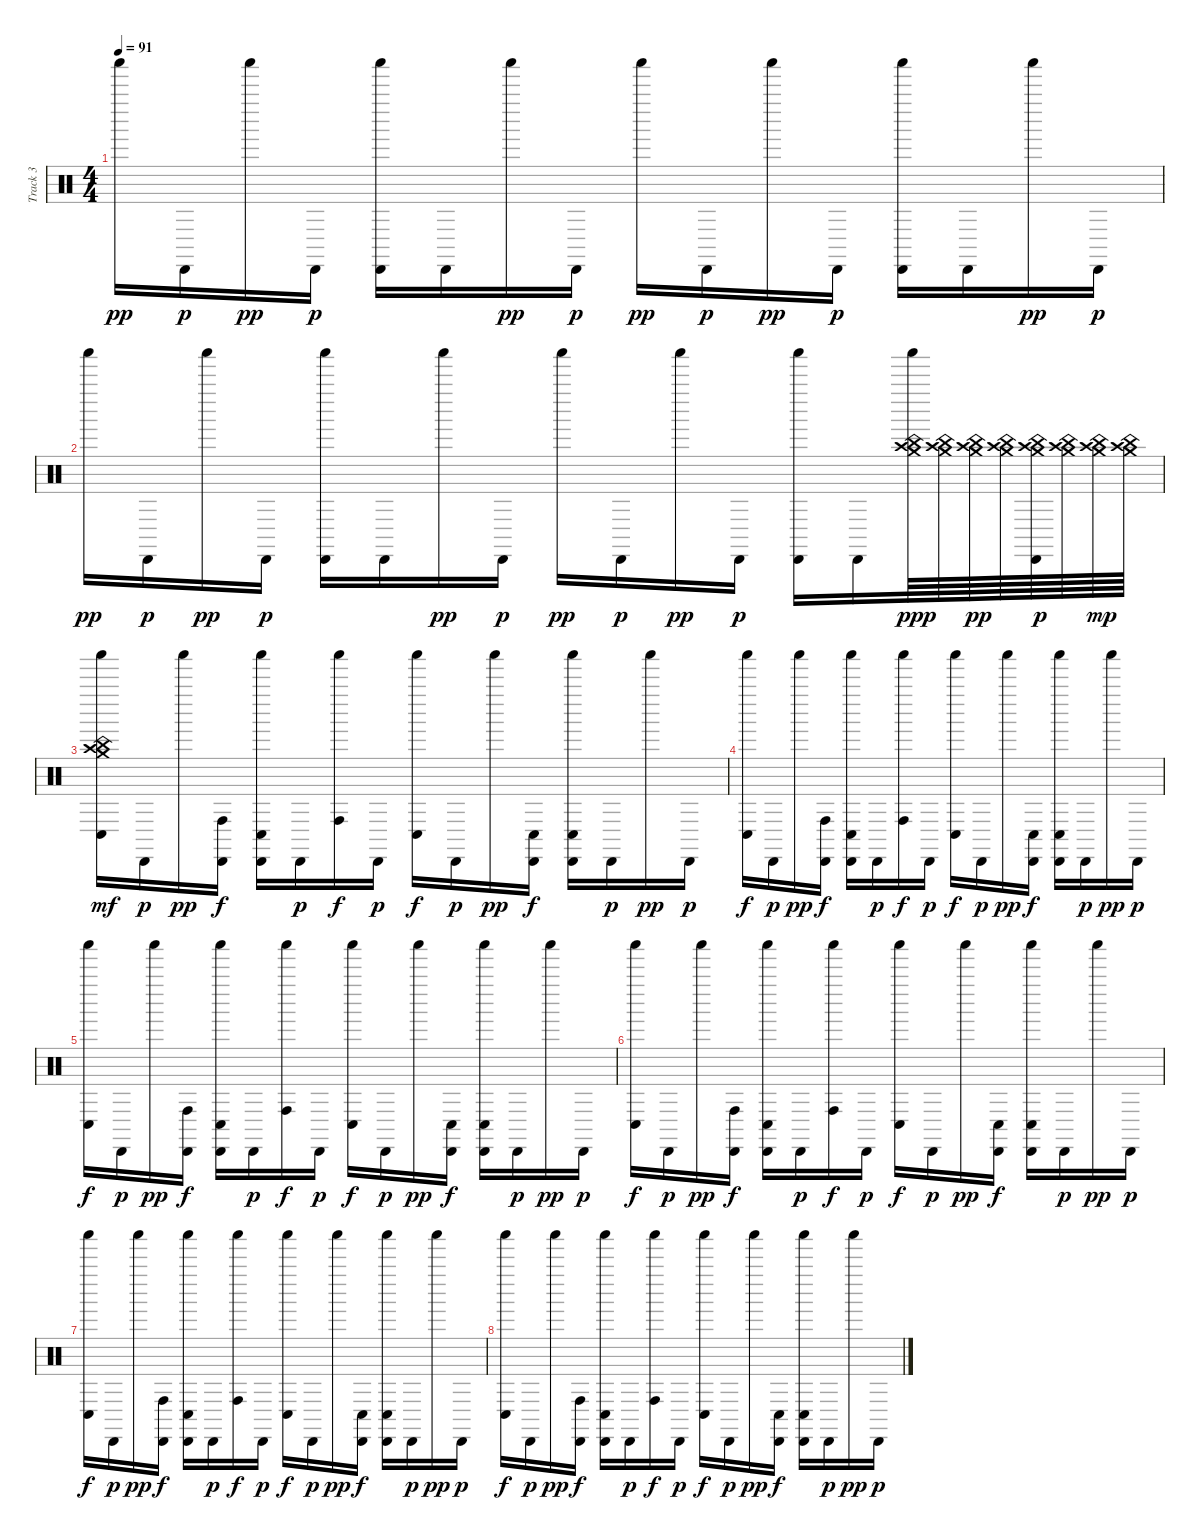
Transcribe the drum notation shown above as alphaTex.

\track ("Track 3" "Track 3") {instrument percussion}
\staff {score}
\articulation defaults
\ts (4 4)
\tempo 91
\clef neutral
\ks c "Shaker (hit)".16{dy pp} "Cabasa (hit)".16{dy p} "Shaker (hit)".16{dy pp} "Cabasa (hit)".16{dy p}
("Cabasa (hit)" "Shaker (hit)").16 "Cabasa (hit)".16 "Shaker (hit)".16{dy pp} "Cabasa (hit)".16{dy p} "Shaker (hit)".16{dy pp} "Cabasa (hit)".16{dy p} "Shaker (hit)".16{dy pp} "Cabasa (hit)".16{dy p} ("Cabasa (hit)" "Shaker (hit)").16 "Cabasa (hit)".16 "Shaker (hit)".16{dy pp} "Cabasa (hit)".16{dy p} |
"Shaker (hit)".16{dy pp} "Cabasa (hit)".16{dy p} "Shaker (hit)".16{dy pp} "Cabasa (hit)".16{dy p} ("Cabasa (hit)" "Shaker (hit)").16 "Cabasa (hit)".16 "Shaker (hit)".16{dy pp} "Cabasa (hit)".16{dy p} "Shaker (hit)".16{dy pp} "Cabasa (hit)".16{dy p} "Shaker (hit)".16{dy pp} "Cabasa (hit)".16{dy p} ("Cabasa (hit)" "Shaker (hit)").16 "Cabasa (hit)".16 ("Shaker (hit)" "China (hit)" "Crash medium (hit)" "Crash high (hit)").64{dy ppp} ("China (hit)" "Crash medium (hit)" "Crash high (hit)").64 ("China (hit)" "Crash medium (hit)" "Crash high (hit)").64{dy pp} ("China (hit)" "Crash medium (hit)" "Crash high (hit)").64 ("Cabasa (hit)" "China (hit)" "Crash medium (hit)" "Crash high (hit)").64{dy p} ("China (hit)" "Crash medium (hit)" "Crash high (hit)").64 ("China (hit)" "Crash medium (hit)" "Crash high (hit)").64{dy mp} ("China (hit)" "Crash medium (hit)" "Crash high (hit)").64 |
("China (hit)" "Shaker (hit)" "Crash medium (hit)" "Conga low (hit)" "Crash high (hit)").16{dy mf} "Cabasa (hit)".16{dy p} "Shaker (hit)".16{dy pp} ("Cabasa (hit)" "Conga high (hit)").16{dy f} ("Cabasa (hit)" "Shaker (hit)" "Conga low (hit)").16 "Cabasa (hit)".16{dy p} ("Shaker (hit)" "Conga high (hit)").16{dy f} "Cabasa (hit)".16{dy p} ("Shaker (hit)" "Conga low (hit)").16{dy f} "Cabasa (hit)".16{dy p} "Shaker (hit)".16{dy pp} ("Cabasa (hit)" "Conga low (hit)").16{dy f} ("Cabasa (hit)" "Shaker (hit)" "Conga low (hit)").16 "Cabasa (hit)".16{dy p} "Shaker (hit)".16{dy pp} "Cabasa (hit)".16{dy p} |
("Shaker (hit)" "Conga low (hit)").16{dy f} "Cabasa (hit)".16{dy p} "Shaker (hit)".16{dy pp} ("Cabasa (hit)" "Conga high (hit)").16{dy f} ("Cabasa (hit)" "Shaker (hit)" "Conga low (hit)").16 "Cabasa (hit)".16{dy p} ("Shaker (hit)" "Conga high (hit)").16{dy f} "Cabasa (hit)".16{dy p} ("Shaker (hit)" "Conga low (hit)").16{dy f} "Cabasa (hit)".16{dy p} "Shaker (hit)".16{dy pp} ("Cabasa (hit)" "Conga low (hit)").16{dy f} ("Cabasa (hit)" "Shaker (hit)" "Conga low (hit)").16 "Cabasa (hit)".16{dy p} "Shaker (hit)".16{dy pp} "Cabasa (hit)".16{dy p} |
("Shaker (hit)" "Conga low (hit)").16{dy f} "Cabasa (hit)".16{dy p} "Shaker (hit)".16{dy pp} ("Cabasa (hit)" "Conga high (hit)").16{dy f} ("Cabasa (hit)" "Shaker (hit)" "Conga low (hit)").16 "Cabasa (hit)".16{dy p} ("Shaker (hit)" "Conga high (hit)").16{dy f} "Cabasa (hit)".16{dy p} ("Shaker (hit)" "Conga low (hit)").16{dy f} "Cabasa (hit)".16{dy p} "Shaker (hit)".16{dy pp} ("Cabasa (hit)" "Conga low (hit)").16{dy f} ("Cabasa (hit)" "Shaker (hit)" "Conga low (hit)").16 "Cabasa (hit)".16{dy p} "Shaker (hit)".16{dy pp} "Cabasa (hit)".16{dy p} |
("Shaker (hit)" "Conga low (hit)").16{dy f} "Cabasa (hit)".16{dy p} "Shaker (hit)".16{dy pp} ("Cabasa (hit)" "Conga high (hit)").16{dy f} ("Cabasa (hit)" "Shaker (hit)" "Conga low (hit)").16 "Cabasa (hit)".16{dy p} ("Shaker (hit)" "Conga high (hit)").16{dy f} "Cabasa (hit)".16{dy p} ("Shaker (hit)" "Conga low (hit)").16{dy f} "Cabasa (hit)".16{dy p} "Shaker (hit)".16{dy pp} ("Cabasa (hit)" "Conga low (hit)").16{dy f} ("Cabasa (hit)" "Shaker (hit)" "Conga low (hit)").16 "Cabasa (hit)".16{dy p} "Shaker (hit)".16{dy pp} "Cabasa (hit)".16{dy p} |
("Shaker (hit)" "Conga low (hit)").16{dy f} "Cabasa (hit)".16{dy p} "Shaker (hit)".16{dy pp} ("Cabasa (hit)" "Conga high (hit)").16{dy f} ("Cabasa (hit)" "Shaker (hit)" "Conga low (hit)").16 "Cabasa (hit)".16{dy p} ("Shaker (hit)" "Conga high (hit)").16{dy f} "Cabasa (hit)".16{dy p} ("Shaker (hit)" "Conga low (hit)").16{dy f} "Cabasa (hit)".16{dy p} "Shaker (hit)".16{dy pp} ("Cabasa (hit)" "Conga low (hit)").16{dy f} ("Cabasa (hit)" "Shaker (hit)" "Conga low (hit)").16 "Cabasa (hit)".16{dy p} "Shaker (hit)".16{dy pp} "Cabasa (hit)".16{dy p} |
("Shaker (hit)" "Conga low (hit)").16{dy f} "Cabasa (hit)".16{dy p} "Shaker (hit)".16{dy pp} ("Cabasa (hit)" "Conga high (hit)").16{dy f} ("Cabasa (hit)" "Shaker (hit)" "Conga low (hit)").16 "Cabasa (hit)".16{dy p} ("Shaker (hit)" "Conga high (hit)").16{dy f} "Cabasa (hit)".16{dy p} ("Shaker (hit)" "Conga low (hit)").16{dy f} "Cabasa (hit)".16{dy p} "Shaker (hit)".16{dy pp} ("Cabasa (hit)" "Conga low (hit)").16{dy f} ("Cabasa (hit)" "Shaker (hit)" "Conga low (hit)").16 "Cabasa (hit)".16{dy p} "Shaker (hit)".16{dy pp} "Cabasa (hit)".16{dy p}
